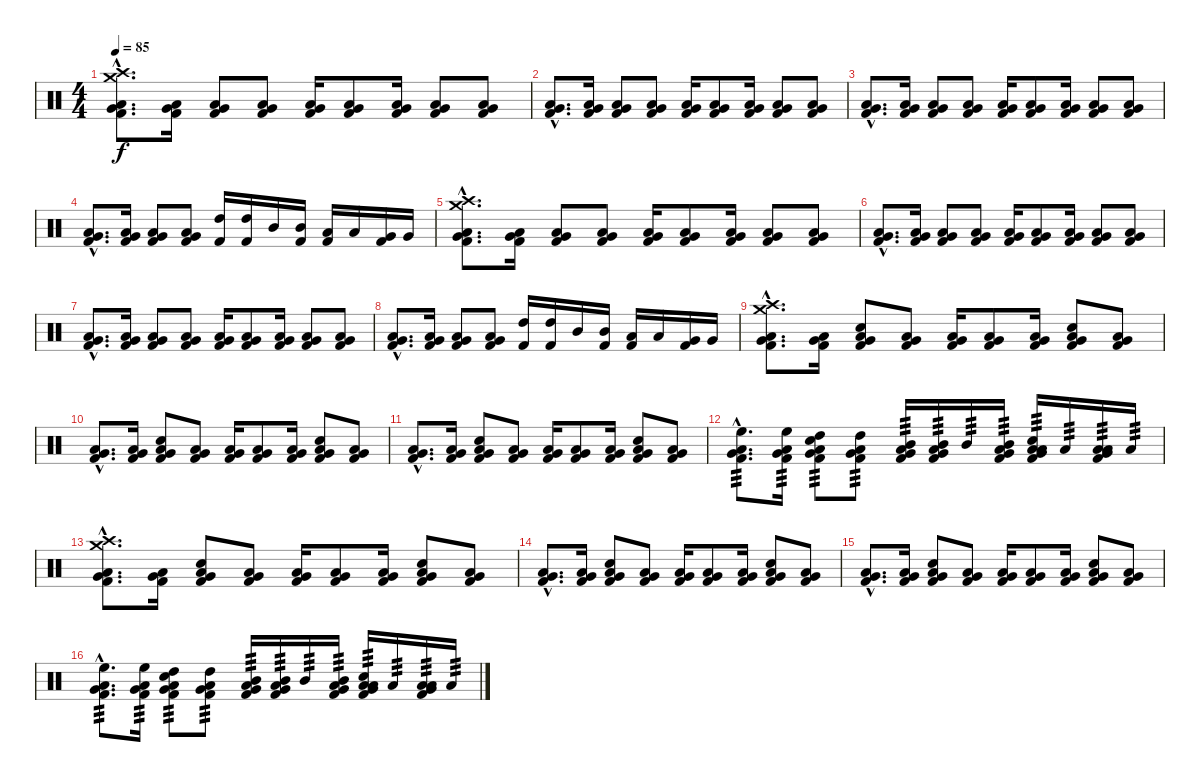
\track "" {instrument percussion}
\staff {score}
\articulation defaults
\ts (4 4)
\tempo 85
\clef neutral
\ks c
("Crash high (hit)"{hac} "Crash medium (hit)"{hac} "Low Tom (hit)"{hac} "Very Low Tom (hit)"{hac} "Kick (hit) 2"{hac}).8{d dy f} ("Low Tom (hit)" "Very Low Tom (hit)" "Kick (hit) 2").16 ("Low Tom (hit)" "Very Low Tom (hit)" "Kick (hit) 2").8 ("Low Tom (hit)" "Very Low Tom (hit)" "Kick (hit) 2").8 ("Low Tom (hit)" "Very Low Tom (hit)" "Kick (hit) 2").16 ("Low Tom (hit)" "Very Low Tom (hit)" "Kick (hit) 2").8 ("Low Tom (hit)" "Very Low Tom (hit)" "Kick (hit) 2").16 ("Low Tom (hit)" "Very Low Tom (hit)" "Kick (hit) 2").8 ("Low Tom (hit)" "Very Low Tom (hit)" "Kick (hit) 2").8 |
("Low Tom (hit)"{hac} "Very Low Tom (hit)"{hac} "Kick (hit) 2"{hac}).8{d} ("Low Tom (hit)" "Very Low Tom (hit)" "Kick (hit) 2").16 ("Low Tom (hit)" "Very Low Tom (hit)" "Kick (hit) 2").8 ("Low Tom (hit)" "Very Low Tom (hit)" "Kick (hit) 2").8 ("Low Tom (hit)" "Very Low Tom (hit)" "Kick (hit) 2").16 ("Low Tom (hit)" "Very Low Tom (hit)" "Kick (hit) 2").8 ("Low Tom (hit)" "Very Low Tom (hit)" "Kick (hit) 2").16 ("Low Tom (hit)" "Very Low Tom (hit)" "Kick (hit) 2").8 ("Low Tom (hit)" "Very Low Tom (hit)" "Kick (hit) 2").8 |
("Low Tom (hit)"{hac} "Very Low Tom (hit)"{hac} "Kick (hit) 2"{hac}).8{d} ("Low Tom (hit)" "Very Low Tom (hit)" "Kick (hit) 2").16 ("Low Tom (hit)" "Very Low Tom (hit)" "Kick (hit) 2").8 ("Low Tom (hit)" "Very Low Tom (hit)" "Kick (hit) 2").8 ("Low Tom (hit)" "Very Low Tom (hit)" "Kick (hit) 2").16 ("Low Tom (hit)" "Very Low Tom (hit)" "Kick (hit) 2").8 ("Low Tom (hit)" "Very Low Tom (hit)" "Kick (hit) 2").16 ("Low Tom (hit)" "Very Low Tom (hit)" "Kick (hit) 2").8 ("Low Tom (hit)" "Very Low Tom (hit)" "Kick (hit) 2").8 |
("Low Tom (hit)"{hac} "Very Low Tom (hit)"{hac} "Kick (hit) 2"{hac}).8{d} ("Low Tom (hit)" "Very Low Tom (hit)" "Kick (hit) 2").16 ("Low Tom (hit)" "Very Low Tom (hit)" "Kick (hit) 2").8 ("Low Tom (hit)" "Very Low Tom (hit)" "Kick (hit) 2").8 ("High Tom (hit)" "Kick (hit) 2").16 ("High Tom (hit)" "Kick (hit) 2").16 "Mid Tom (hit)".16 ("Mid Tom (hit)" "Kick (hit) 2").16 ("Low Tom (hit)" "Kick (hit) 2").16 "Low Tom (hit)".16 ("Very Low Tom (hit)" "Kick (hit) 2").16 "Very Low Tom (hit)".16 |
("Crash high (hit)"{hac} "Crash medium (hit)"{hac} "Low Tom (hit)"{hac} "Very Low Tom (hit)"{hac} "Kick (hit) 2"{hac}).8{d} ("Low Tom (hit)" "Very Low Tom (hit)" "Kick (hit) 2").16 ("Low Tom (hit)" "Very Low Tom (hit)" "Kick (hit) 2").8 ("Low Tom (hit)" "Very Low Tom (hit)" "Kick (hit) 2").8 ("Low Tom (hit)" "Very Low Tom (hit)" "Kick (hit) 2").16 ("Low Tom (hit)" "Very Low Tom (hit)" "Kick (hit) 2").8 ("Low Tom (hit)" "Very Low Tom (hit)" "Kick (hit) 2").16 ("Low Tom (hit)" "Very Low Tom (hit)" "Kick (hit) 2").8 ("Low Tom (hit)" "Very Low Tom (hit)" "Kick (hit) 2").8 |
("Low Tom (hit)"{hac} "Very Low Tom (hit)"{hac} "Kick (hit) 2"{hac}).8{d} ("Low Tom (hit)" "Very Low Tom (hit)" "Kick (hit) 2").16 ("Low Tom (hit)" "Very Low Tom (hit)" "Kick (hit) 2").8 ("Low Tom (hit)" "Very Low Tom (hit)" "Kick (hit) 2").8 ("Low Tom (hit)" "Very Low Tom (hit)" "Kick (hit) 2").16 ("Low Tom (hit)" "Very Low Tom (hit)" "Kick (hit) 2").8 ("Low Tom (hit)" "Very Low Tom (hit)" "Kick (hit) 2").16 ("Low Tom (hit)" "Very Low Tom (hit)" "Kick (hit) 2").8 ("Low Tom (hit)" "Very Low Tom (hit)" "Kick (hit) 2").8 |
("Low Tom (hit)"{hac} "Very Low Tom (hit)"{hac} "Kick (hit) 2"{hac}).8{d} ("Low Tom (hit)" "Very Low Tom (hit)" "Kick (hit) 2").16 ("Low Tom (hit)" "Very Low Tom (hit)" "Kick (hit) 2").8 ("Low Tom (hit)" "Very Low Tom (hit)" "Kick (hit) 2").8 ("Low Tom (hit)" "Very Low Tom (hit)" "Kick (hit) 2").16 ("Low Tom (hit)" "Very Low Tom (hit)" "Kick (hit) 2").8 ("Low Tom (hit)" "Very Low Tom (hit)" "Kick (hit) 2").16 ("Low Tom (hit)" "Very Low Tom (hit)" "Kick (hit) 2").8 ("Low Tom (hit)" "Very Low Tom (hit)" "Kick (hit) 2").8 |
("Low Tom (hit)"{hac} "Very Low Tom (hit)"{hac} "Kick (hit) 2"{hac}).8{d} ("Low Tom (hit)" "Very Low Tom (hit)" "Kick (hit) 2").16 ("Low Tom (hit)" "Very Low Tom (hit)" "Kick (hit) 2").8 ("Low Tom (hit)" "Very Low Tom (hit)" "Kick (hit) 2").8 ("High Tom (hit)" "Kick (hit) 2").16 ("High Tom (hit)" "Kick (hit) 2").16 "Mid Tom (hit)".16 ("Mid Tom (hit)" "Kick (hit) 2").16 ("Low Tom (hit)" "Kick (hit) 2").16 "Low Tom (hit)".16 ("Very Low Tom (hit)" "Kick (hit) 2").16 "Very Low Tom (hit)".16 |
("Crash high (hit)"{hac} "Crash medium (hit)"{hac} "Low Tom (hit)"{hac} "Very Low Tom (hit)"{hac} "Kick (hit) 2"{hac}).8{d} ("Low Tom (hit)" "Very Low Tom (hit)" "Kick (hit) 2").16 ("Snare (hit) 2" "Low Tom (hit)" "Very Low Tom (hit)" "Kick (hit) 2").8 ("Low Tom (hit)" "Very Low Tom (hit)" "Kick (hit) 2").8 ("Low Tom (hit)" "Very Low Tom (hit)" "Kick (hit) 2").16 ("Low Tom (hit)" "Very Low Tom (hit)" "Kick (hit) 2").8 ("Low Tom (hit)" "Very Low Tom (hit)" "Kick (hit) 2").16 ("Snare (hit) 2" "Low Tom (hit)" "Very Low Tom (hit)" "Kick (hit) 2").8 ("Low Tom (hit)" "Very Low Tom (hit)" "Kick (hit) 2").8 |
("Low Tom (hit)"{hac} "Very Low Tom (hit)"{hac} "Kick (hit) 2"{hac}).8{d} ("Low Tom (hit)" "Very Low Tom (hit)" "Kick (hit) 2").16 ("Snare (hit) 2" "Low Tom (hit)" "Very Low Tom (hit)" "Kick (hit) 2").8 ("Low Tom (hit)" "Very Low Tom (hit)" "Kick (hit) 2").8 ("Low Tom (hit)" "Very Low Tom (hit)" "Kick (hit) 2").16 ("Low Tom (hit)" "Very Low Tom (hit)" "Kick (hit) 2").8 ("Low Tom (hit)" "Very Low Tom (hit)" "Kick (hit) 2").16 ("Snare (hit) 2" "Low Tom (hit)" "Very Low Tom (hit)" "Kick (hit) 2").8 ("Low Tom (hit)" "Very Low Tom (hit)" "Kick (hit) 2").8 |
("Low Tom (hit)"{hac} "Very Low Tom (hit)"{hac} "Kick (hit) 2"{hac}).8{d} ("Low Tom (hit)" "Very Low Tom (hit)" "Kick (hit) 2").16 ("Snare (hit) 2" "Low Tom (hit)" "Very Low Tom (hit)" "Kick (hit) 2").8 ("Low Tom (hit)" "Very Low Tom (hit)" "Kick (hit) 2").8 ("Low Tom (hit)" "Very Low Tom (hit)" "Kick (hit) 2").16 ("Low Tom (hit)" "Very Low Tom (hit)" "Kick (hit) 2").8 ("Low Tom (hit)" "Very Low Tom (hit)" "Kick (hit) 2").16 ("Snare (hit) 2" "Low Tom (hit)" "Very Low Tom (hit)" "Kick (hit) 2").8 ("Low Tom (hit)" "Very Low Tom (hit)" "Kick (hit) 2").8 |
("High Floor Tom (hit)"{hac} "Low Tom (hit)"{hac} "Very Low Tom (hit)"{hac} "Kick (hit) 2"{hac}).8{d tp 3} ("High Floor Tom (hit)" "Low Tom (hit)" "Very Low Tom (hit)" "Kick (hit) 2").16{tp 3} ("High Tom (hit)" "Snare (hit) 2" "Low Tom (hit)" "Very Low Tom (hit)" "Kick (hit) 2").8{tp 3} ("High Tom (hit)" "Low Tom (hit)" "Very Low Tom (hit)" "Kick (hit) 2").8{tp 3} ("Mid Tom (hit)" "Low Tom (hit)" "Very Low Tom (hit)" "Kick (hit) 2").16{tp 3} ("Mid Tom (hit)" "Low Tom (hit)" "Very Low Tom (hit)" "Kick (hit) 2").16{tp 3} "Mid Tom (hit)".16{tp 3} ("Mid Tom (hit)" "Low Tom (hit)" "Very Low Tom (hit)" "Kick (hit) 2").16{tp 3} ("Low Tom (hit)" "Snare (hit) 2" "Low Tom (hit)" "Very Low Tom (hit)" "Kick (hit) 2").16{tp 3} "Low Tom (hit)".16{tp 3} ("Low Tom (hit)" "Low Tom (hit)" "Very Low Tom (hit)" "Kick (hit) 2").16{tp 3} "Low Tom (hit)".16{tp 3} |
("Crash high (hit)"{hac} "Crash medium (hit)"{hac} "Low Tom (hit)"{hac} "Very Low Tom (hit)"{hac} "Kick (hit) 2"{hac}).8{d} ("Low Tom (hit)" "Very Low Tom (hit)" "Kick (hit) 2").16 ("Snare (hit) 2" "Low Tom (hit)" "Very Low Tom (hit)" "Kick (hit) 2").8 ("Low Tom (hit)" "Very Low Tom (hit)" "Kick (hit) 2").8 ("Low Tom (hit)" "Very Low Tom (hit)" "Kick (hit) 2").16 ("Low Tom (hit)" "Very Low Tom (hit)" "Kick (hit) 2").8 ("Low Tom (hit)" "Very Low Tom (hit)" "Kick (hit) 2").16 ("Snare (hit) 2" "Low Tom (hit)" "Very Low Tom (hit)" "Kick (hit) 2").8 ("Low Tom (hit)" "Very Low Tom (hit)" "Kick (hit) 2").8 |
("Low Tom (hit)"{hac} "Very Low Tom (hit)"{hac} "Kick (hit) 2"{hac}).8{d} ("Low Tom (hit)" "Very Low Tom (hit)" "Kick (hit) 2").16 ("Snare (hit) 2" "Low Tom (hit)" "Very Low Tom (hit)" "Kick (hit) 2").8 ("Low Tom (hit)" "Very Low Tom (hit)" "Kick (hit) 2").8 ("Low Tom (hit)" "Very Low Tom (hit)" "Kick (hit) 2").16 ("Low Tom (hit)" "Very Low Tom (hit)" "Kick (hit) 2").8 ("Low Tom (hit)" "Very Low Tom (hit)" "Kick (hit) 2").16 ("Snare (hit) 2" "Low Tom (hit)" "Very Low Tom (hit)" "Kick (hit) 2").8 ("Low Tom (hit)" "Very Low Tom (hit)" "Kick (hit) 2").8 |
("Low Tom (hit)"{hac} "Very Low Tom (hit)"{hac} "Kick (hit) 2"{hac}).8{d} ("Low Tom (hit)" "Very Low Tom (hit)" "Kick (hit) 2").16 ("Snare (hit) 2" "Low Tom (hit)" "Very Low Tom (hit)" "Kick (hit) 2").8 ("Low Tom (hit)" "Very Low Tom (hit)" "Kick (hit) 2").8 ("Low Tom (hit)" "Very Low Tom (hit)" "Kick (hit) 2").16 ("Low Tom (hit)" "Very Low Tom (hit)" "Kick (hit) 2").8 ("Low Tom (hit)" "Very Low Tom (hit)" "Kick (hit) 2").16 ("Snare (hit) 2" "Low Tom (hit)" "Very Low Tom (hit)" "Kick (hit) 2").8 ("Low Tom (hit)" "Very Low Tom (hit)" "Kick (hit) 2").8 |
("High Floor Tom (hit)"{hac} "Low Tom (hit)"{hac} "Very Low Tom (hit)"{hac} "Kick (hit) 2"{hac}).8{d tp 3} ("High Floor Tom (hit)" "Low Tom (hit)" "Very Low Tom (hit)" "Kick (hit) 2").16{tp 3} ("High Tom (hit)" "Snare (hit) 2" "Low Tom (hit)" "Very Low Tom (hit)" "Kick (hit) 2").8{tp 3} ("High Tom (hit)" "Low Tom (hit)" "Very Low Tom (hit)" "Kick (hit) 2").8{tp 3} ("Mid Tom (hit)" "Low Tom (hit)" "Very Low Tom (hit)" "Kick (hit) 2").16{tp 3} ("Mid Tom (hit)" "Low Tom (hit)" "Very Low Tom (hit)" "Kick (hit) 2").16{tp 3} "Mid Tom (hit)".16{tp 3} ("Mid Tom (hit)" "Low Tom (hit)" "Very Low Tom (hit)" "Kick (hit) 2").16{tp 3} ("Low Tom (hit)" "Snare (hit) 2" "Low Tom (hit)" "Very Low Tom (hit)" "Kick (hit) 2").16{tp 3} "Low Tom (hit)".16{tp 3} ("Low Tom (hit)" "Low Tom (hit)" "Very Low Tom (hit)" "Kick (hit) 2").16{tp 3} "Low Tom (hit)".16{tp 3}
